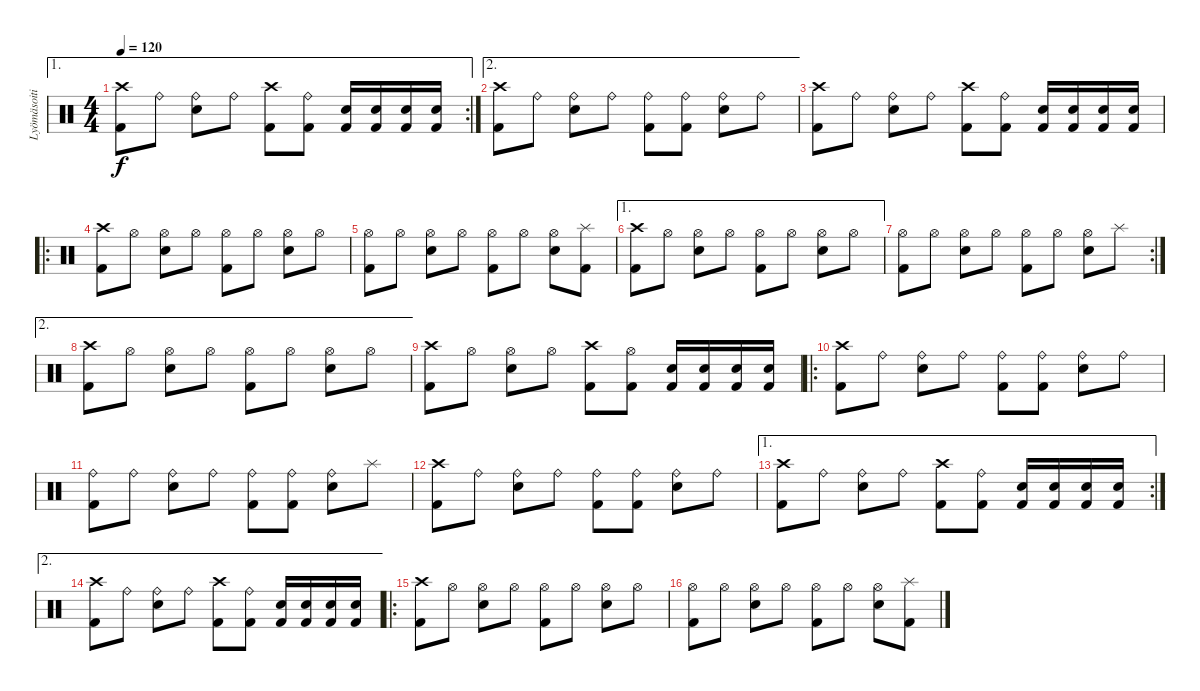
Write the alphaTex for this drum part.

\track ("Lyömäsoitin" "Lyömäsoiti") {instrument percussion}
\staff {score}
\articulation defaults
\ae 1
\rc 2
\ts (4 4)
\tempo 120
\clef neutral
\ks c
("Crash high (hit)" "Kick (hit) 2").8{dy f} "Ride (bell)".8 ("Ride (bell)" "Snare (hit) 2").8 "Ride (bell)".8 ("Crash high (hit)" "Kick (hit) 2").8 ("Ride (bell)" "Kick (hit) 2").8 ("Snare (hit) 2" "Kick (hit) 2").16 ("Snare (hit) 2" "Kick (hit) 2").16 ("Snare (hit) 2" "Kick (hit) 2").16 ("Snare (hit) 2" "Kick (hit) 2").16 |
\ae 2
("Crash high (hit)" "Kick (hit) 2").8 "Ride (bell)".8 ("Ride (bell)" "Snare (hit) 2").8 "Ride (bell)".8 ("Ride (bell)" "Kick (hit) 2").8 ("Ride (bell)" "Kick (hit) 2").8 ("Ride (bell)" "Snare (hit) 2").8 "Ride (bell)".8 |
("Crash high (hit)" "Kick (hit) 2").8 "Ride (bell)".8 ("Ride (bell)" "Snare (hit) 2").8 "Ride (bell)".8 ("Crash high (hit)" "Kick (hit) 2").8 ("Ride (bell)" "Kick (hit) 2").8 ("Snare (hit) 2" "Kick (hit) 2").16 ("Snare (hit) 2" "Kick (hit) 2").16 ("Snare (hit) 2" "Kick (hit) 2").16 ("Snare (hit) 2" "Kick (hit) 2").16 |
\ro
("Crash high (hit)" "Kick (hit) 2").8 "Hi-Hat (open)".8 ("Hi-Hat (open)" "Snare (hit) 2").8 "Hi-Hat (open)".8 ("Hi-Hat (open)" "Kick (hit) 2").8 "Hi-Hat (open)".8 ("Hi-Hat (open)" "Snare (hit) 2").8 "Hi-Hat (open)".8 |
("Hi-Hat (open)" "Kick (hit) 2").8 "Hi-Hat (open)".8 ("Hi-Hat (open)" "Snare (hit) 2").8 "Hi-Hat (open)".8 ("Hi-Hat (open)" "Kick (hit) 2").8 "Hi-Hat (open)".8 ("Hi-Hat (open)" "Snare (hit) 2").8 ("Splash (hit)" "Kick (hit) 2").8 |
\ae 1
("Crash high (hit)" "Kick (hit) 2").8 "Hi-Hat (open)".8 ("Hi-Hat (open)" "Snare (hit) 2").8 "Hi-Hat (open)".8 ("Hi-Hat (open)" "Kick (hit) 2").8 "Hi-Hat (open)".8 ("Hi-Hat (open)" "Snare (hit) 2").8 "Hi-Hat (open)".8 |
\rc 2
("Hi-Hat (open)" "Kick (hit) 2").8 "Hi-Hat (open)".8 ("Hi-Hat (open)" "Snare (hit) 2").8 "Hi-Hat (open)".8 ("Hi-Hat (open)" "Kick (hit) 2").8 "Hi-Hat (open)".8 ("Hi-Hat (open)" "Snare (hit) 2").8 "Splash (hit)".8 |
\ae 2
("Crash high (hit)" "Kick (hit) 2").8 "Hi-Hat (open)".8 ("Hi-Hat (open)" "Snare (hit) 2").8 "Hi-Hat (open)".8 ("Hi-Hat (open)" "Kick (hit) 2").8 "Hi-Hat (open)".8 ("Hi-Hat (open)" "Snare (hit) 2").8 "Hi-Hat (open)".8 |
("Crash high (hit)" "Kick (hit) 2").8 "Hi-Hat (open)".8 ("Hi-Hat (open)" "Snare (hit) 2").8 "Hi-Hat (open)".8 ("Crash high (hit)" "Kick (hit) 2").8 ("Hi-Hat (open)" "Kick (hit) 2").8 ("Snare (hit) 2" "Kick (hit) 2").16 ("Snare (hit) 2" "Kick (hit) 2").16 ("Snare (hit) 2" "Kick (hit) 2").16 ("Snare (hit) 2" "Kick (hit) 2").16 |
\ro
("Crash high (hit)" "Kick (hit) 2").8 "Ride (bell)".8 ("Ride (bell)" "Snare (hit) 2").8 "Ride (bell)".8 ("Ride (bell)" "Kick (hit) 2").8 ("Ride (bell)" "Kick (hit) 2").8 ("Ride (bell)" "Snare (hit) 2").8 "Ride (bell)".8 |
("Ride (bell)" "Kick (hit) 2").8 "Ride (bell)".8 ("Ride (bell)" "Snare (hit) 2").8 "Ride (bell)".8 ("Ride (bell)" "Kick (hit) 2").8 ("Ride (bell)" "Kick (hit) 2").8 ("Ride (bell)" "Snare (hit) 2").8 "Splash (hit)".8 |
("Crash high (hit)" "Kick (hit) 2").8 "Ride (bell)".8 ("Ride (bell)" "Snare (hit) 2").8 "Ride (bell)".8 ("Ride (bell)" "Kick (hit) 2").8 ("Ride (bell)" "Kick (hit) 2").8 ("Ride (bell)" "Snare (hit) 2").8 "Ride (bell)".8 |
\ae 1
\rc 2
("Crash high (hit)" "Kick (hit) 2").8 "Ride (bell)".8 ("Ride (bell)" "Snare (hit) 2").8 "Ride (bell)".8 ("Crash high (hit)" "Kick (hit) 2").8 ("Ride (bell)" "Kick (hit) 2").8 ("Snare (hit) 2" "Kick (hit) 2").16 ("Snare (hit) 2" "Kick (hit) 2").16 ("Snare (hit) 2" "Kick (hit) 2").16 ("Snare (hit) 2" "Kick (hit) 2").16 |
\ae 2
("Crash high (hit)" "Kick (hit) 2").8 "Ride (bell)".8 ("Ride (bell)" "Snare (hit) 2").8 "Ride (bell)".8 ("Crash high (hit)" "Kick (hit) 2").8 ("Ride (bell)" "Kick (hit) 2").8 ("Snare (hit) 2" "Kick (hit) 2").16 ("Snare (hit) 2" "Kick (hit) 2").16 ("Snare (hit) 2" "Kick (hit) 2").16 ("Snare (hit) 2" "Kick (hit) 2").16 |
\ro
("Crash high (hit)" "Kick (hit) 2").8 "Hi-Hat (open)".8 ("Hi-Hat (open)" "Snare (hit) 2").8 "Hi-Hat (open)".8 ("Hi-Hat (open)" "Kick (hit) 2").8 "Hi-Hat (open)".8 ("Hi-Hat (open)" "Snare (hit) 2").8 "Hi-Hat (open)".8 |
("Hi-Hat (open)" "Kick (hit) 2").8 "Hi-Hat (open)".8 ("Hi-Hat (open)" "Snare (hit) 2").8 "Hi-Hat (open)".8 ("Hi-Hat (open)" "Kick (hit) 2").8 "Hi-Hat (open)".8 ("Hi-Hat (open)" "Snare (hit) 2").8 ("Splash (hit)" "Kick (hit) 2").8
